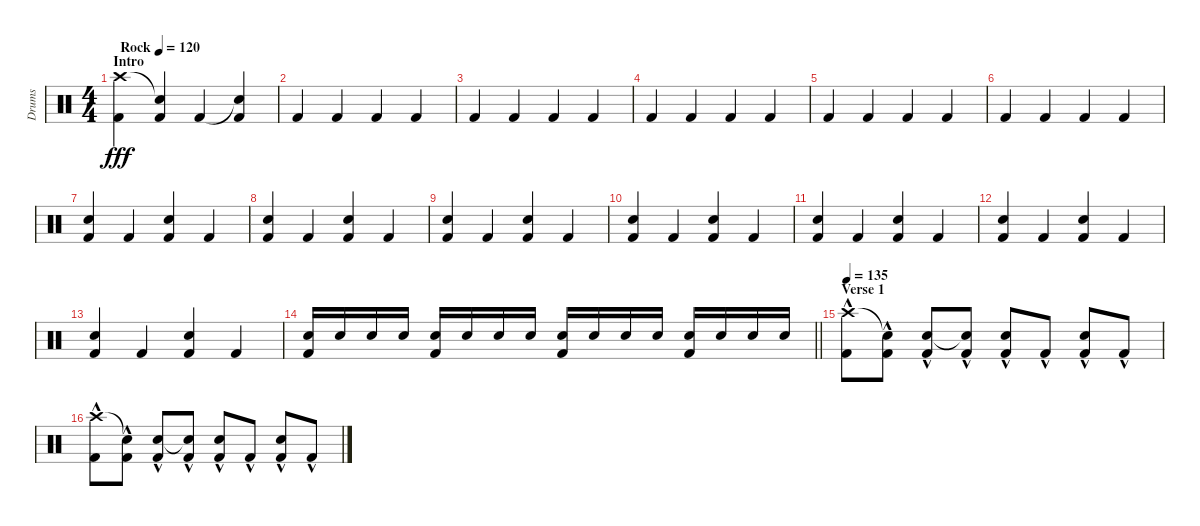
\track ("Drums" "Drums") {instrument percussion}
\staff {score}
\articulation defaults
\ts (4 4)
\section ("" "Intro")
\tempo (120 "Rock")
\clef neutral
\ks c
("Crash high (hit)" "Kick (hit) 2").4{dy fff} ("Snare (hit)"{t} "Kick (hit) 2").4 "Kick (hit) 2".4 ("Snare (hit)"{t} "Kick (hit) 2").4 |
"Kick (hit) 2".4 "Kick (hit) 2".4 "Kick (hit) 2".4 "Kick (hit) 2".4 |
"Kick (hit) 2".4 "Kick (hit) 2".4 "Kick (hit) 2".4 "Kick (hit) 2".4 |
"Kick (hit) 2".4 "Kick (hit) 2".4 "Kick (hit) 2".4 "Kick (hit) 2".4 |
"Kick (hit) 2".4 "Kick (hit) 2".4 "Kick (hit) 2".4 "Kick (hit) 2".4 |
"Kick (hit) 2".4 "Kick (hit) 2".4 "Kick (hit) 2".4 "Kick (hit) 2".4 |
("Snare (hit) 2" "Kick (hit) 2").4 "Kick (hit) 2".4 ("Snare (hit) 2" "Kick (hit) 2").4 "Kick (hit) 2".4 |
("Snare (hit) 2" "Kick (hit) 2").4 "Kick (hit) 2".4 ("Snare (hit) 2" "Kick (hit) 2").4 "Kick (hit) 2".4 |
("Snare (hit) 2" "Kick (hit) 2").4 "Kick (hit) 2".4 ("Snare (hit) 2" "Kick (hit) 2").4 "Kick (hit) 2".4 |
("Snare (hit) 2" "Kick (hit) 2").4 "Kick (hit) 2".4 ("Snare (hit) 2" "Kick (hit) 2").4 "Kick (hit) 2".4 |
("Snare (hit) 2" "Kick (hit) 2").4 "Kick (hit) 2".4 ("Snare (hit) 2" "Kick (hit) 2").4 "Kick (hit) 2".4 |
("Snare (hit) 2" "Kick (hit) 2").4 "Kick (hit) 2".4 ("Snare (hit) 2" "Kick (hit) 2").4 "Kick (hit) 2".4 |
("Snare (hit) 2" "Kick (hit) 2").4 "Kick (hit) 2".4 ("Snare (hit) 2" "Kick (hit) 2").4 "Kick (hit) 2".4 |
\barLineRight lightlight
("Snare (hit) 2" "Kick (hit) 2").16 "Snare (hit) 2".16 "Snare (hit) 2".16 "Snare (hit) 2".16 ("Snare (hit) 2" "Kick (hit) 2").16 "Snare (hit) 2".16 "Snare (hit) 2".16 "Snare (hit) 2".16 ("Snare (hit) 2" "Kick (hit) 2").16 "Snare (hit) 2".16 "Snare (hit) 2".16 "Snare (hit) 2".16 ("Snare (hit) 2" "Kick (hit) 2").16 "Snare (hit) 2".16 "Snare (hit) 2".16 "Snare (hit) 2".16 |
\section ("" "Verse 1")
\tempo 135
("Crash high (hit)"{hac} "Kick (hit) 2"{hac}).8 ("Snare (hit)"{t} "Kick (hit) 2"{hac}).8 ("Snare (hit) 2" "Kick (hit) 2"{hac}).8 ("Snare (hit)"{t} "Kick (hit) 2"{hac}).8 ("Snare (hit) 2" "Kick (hit) 2"{hac}).8 "Kick (hit) 2"{hac}.8 ("Snare (hit) 2" "Kick (hit) 2"{hac}).8 "Kick (hit) 2"{hac}.8 |
("Crash high (hit)"{hac} "Kick (hit) 2"{hac}).8 ("Snare (hit)"{t} "Kick (hit) 2"{hac}).8 ("Snare (hit) 2" "Kick (hit) 2"{hac}).8 ("Snare (hit)"{t} "Kick (hit) 2"{hac}).8 ("Snare (hit) 2" "Kick (hit) 2"{hac}).8 "Kick (hit) 2"{hac}.8 ("Snare (hit) 2" "Kick (hit) 2"{hac}).8 "Kick (hit) 2"{hac}.8
